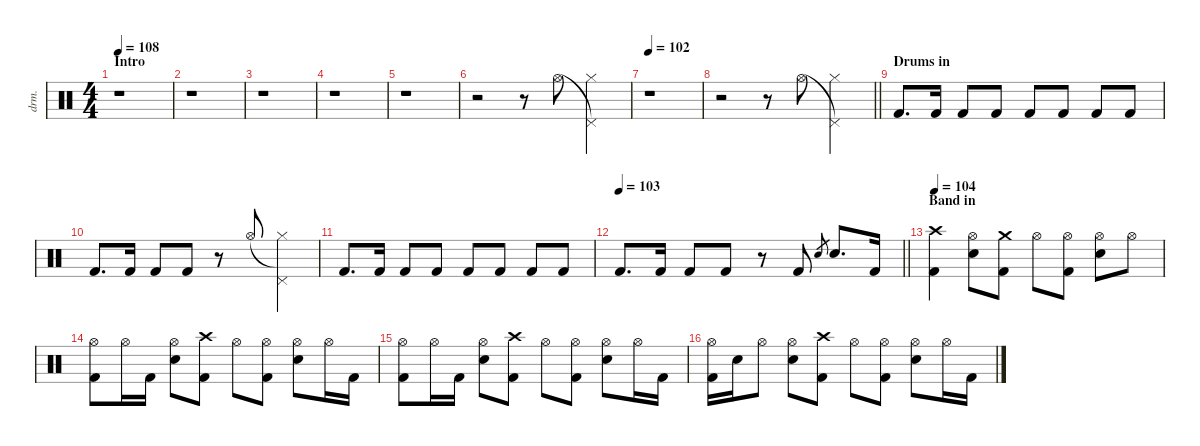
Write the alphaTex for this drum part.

\defaultSystemsLayout 4
\hideDynamics
\bracketExtendMode nobrackets
\otherSystemsTrackNameOrientation horizontal
\track ("Drums" "drm.") {instrument percussion}
\staff {score}
\articulation defaults
\ts (4 4)
\beaming (8 2 2 2 2)
\section ("" "Intro")
\tempo 108
\clef neutral
\ks c
r.1{dy f beam Down} |
r.1{beam Down} |
r.1{beam Down} |
r.1{beam Down} |
r.1{beam Down} |
r.2{beam Down} r.8{beam Down} "Hi-Hat (open)".8{legatoorigin beam Down} ("Hi-Hat (closed)" "Pedal Hi-Hat (hit)").4{beam Down} |
\tempo 102
r.1{beam Down} |
\barLineRight lightlight
r.2{beam Down} r.8{beam Down} "Hi-Hat (open)".8{legatoorigin beam Down} ("Hi-Hat (closed)" "Pedal Hi-Hat (hit)").4{beam Down} |
\section ("" "Drums in")
"Kick (hit) 2".8{d beam Up} "Kick (hit) 2".16{beam Up} "Kick (hit) 2".8{beam Up} "Kick (hit) 2".8{beam Up} "Kick (hit) 2".8{beam Up} "Kick (hit) 2".8{beam Up} "Kick (hit) 2".8{beam Up} "Kick (hit) 2".8{beam Up} |
"Kick (hit) 2".8{d beam Up} "Kick (hit) 2".16{beam Up} "Kick (hit) 2".8{beam Up} "Kick (hit) 2".8{beam Up} r.8{beam Up} "Hi-Hat (open)".8{legatoorigin beam Down} ("Hi-Hat (closed)" "Pedal Hi-Hat (hit)").4{beam Down} |
"Kick (hit) 2".8{d beam Up} "Kick (hit) 2".16{beam Up} "Kick (hit) 2".8{beam Up} "Kick (hit) 2".8{beam Up} "Kick (hit) 2".8{beam Up} "Kick (hit) 2".8{beam Up} "Kick (hit) 2".8{beam Up} "Kick (hit) 2".8{beam Up} |
\tempo 103
\barLineRight lightlight "Kick (hit) 2".8{d beam Up} "Kick (hit) 2".16{beam Up} "Kick (hit) 2".8{beam Up} "Kick (hit) 2".8{beam Up}
r.8{beam Up} "Kick (hit) 2".8{beam Up} "Electric Snare (hit)".8{gr dy mp beam Up} "Snare (hit) 2".8{d dy ff beam Up} "Kick (hit) 2".16{dy f beam Up} |
\section ("" "Band in")
\tempo 104
("Crash high (hit)" "Kick (hit) 2").4{dy ff beam Down} ("Hi-Hat (open)" "Snare (hit) 2").8{dy mf beam Down} ("Crash medium (hit)" "Kick (hit) 2").8{beam Down} "Hi-Hat (open)".8{dy f beam Down} ("Hi-Hat (open)" "Kick (hit) 2").8{dy mf beam Down} ("Hi-Hat (open)" "Snare (hit) 2").8{beam Down} "Hi-Hat (open)".8{beam Down} |
("Hi-Hat (open)" "Kick (hit) 2").8{beam Down} "Hi-Hat (open)".16{beam Down} "Kick (hit) 2".16{dy f beam Down} ("Hi-Hat (open)" "Snare (hit) 2").8{dy mf beam Down} ("Crash high (hit)" "Kick (hit) 2").8{beam Down} "Hi-Hat (open)".8{beam Down} ("Hi-Hat (open)" "Kick (hit) 2").8{beam Down} ("Hi-Hat (open)" "Snare (hit) 2").8{beam Down} "Hi-Hat (open)".16{beam Down} "Kick (hit) 2".16{dy f beam Down} |
("Hi-Hat (open)" "Kick (hit) 2").8{dy mf beam Down} "Hi-Hat (open)".16{beam Down} "Kick (hit) 2".16{dy f beam Down} ("Hi-Hat (open)" "Snare (hit) 2").8{dy mf beam Down} ("Crash high (hit)" "Kick (hit) 2").8{beam Down} "Hi-Hat (open)".8{beam Down} ("Hi-Hat (open)" "Kick (hit) 2").8{beam Down} ("Hi-Hat (open)" "Snare (hit) 2").8{beam Down} "Hi-Hat (open)".16{beam Down} "Kick (hit) 2".16{dy f beam Down} |
("Hi-Hat (open)" "Kick (hit) 2").16{dy mf beam Down} "Snare (hit) 2".16{dy f beam Down} "Hi-Hat (open)".8{dy mf beam Down} ("Hi-Hat (open)" "Snare (hit) 2").8{beam Down} ("Crash high (hit)" "Kick (hit) 2").8{beam Down} "Hi-Hat (open)".8{beam Down} ("Hi-Hat (open)" "Kick (hit) 2").8{beam Down} ("Hi-Hat (open)" "Snare (hit) 2").8{beam Down} "Hi-Hat (open)".16{beam Down} "Kick (hit) 2".16{dy f beam Down}
